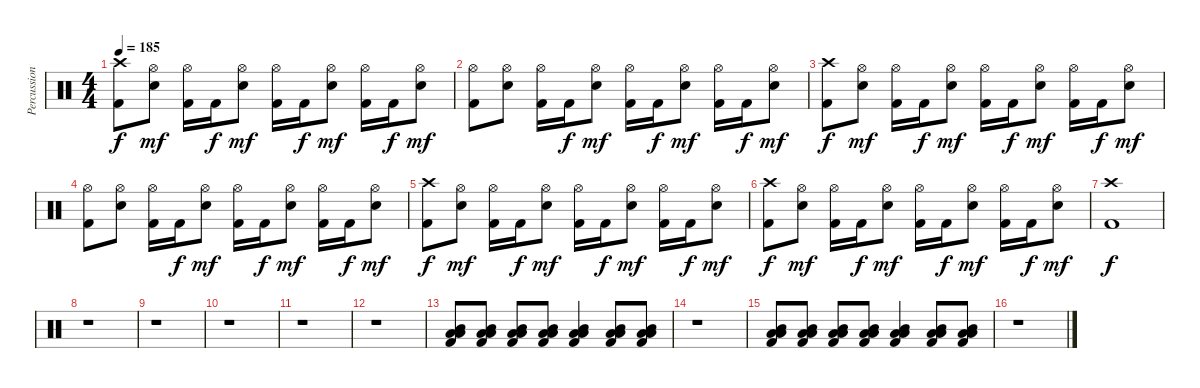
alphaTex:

\track ("Percussion" "Percussion") {instrument percussion}
\staff {score}
\articulation defaults
\ts (4 4)
\tempo 185
\clef neutral
\ks c
("Crash high (hit)" "Kick (hit) 2").8{dy f} ("Hi-Hat (open)" "Electric Snare (hit)").8{dy mf} ("Hi-Hat (open)" "Kick (hit) 2").16 "Kick (hit) 2".16{dy f} ("Hi-Hat (open)" "Electric Snare (hit)").8{dy mf} ("Hi-Hat (open)" "Kick (hit) 2").16 "Kick (hit) 2".16{dy f} ("Hi-Hat (open)" "Electric Snare (hit)").8{dy mf} ("Hi-Hat (open)" "Kick (hit) 2").16 "Kick (hit) 2".16{dy f} ("Hi-Hat (open)" "Electric Snare (hit)").8{dy mf} |
("Hi-Hat (open)" "Kick (hit) 2").8 ("Hi-Hat (open)" "Electric Snare (hit)").8 ("Hi-Hat (open)" "Kick (hit) 2").16 "Kick (hit) 2".16{dy f} ("Hi-Hat (open)" "Electric Snare (hit)").8{dy mf} ("Hi-Hat (open)" "Kick (hit) 2").16 "Kick (hit) 2".16{dy f} ("Hi-Hat (open)" "Electric Snare (hit)").8{dy mf} ("Hi-Hat (open)" "Kick (hit) 2").16 "Kick (hit) 2".16{dy f} ("Hi-Hat (open)" "Electric Snare (hit)").8{dy mf} |
("Crash high (hit)" "Kick (hit) 2").8{dy f} ("Hi-Hat (open)" "Electric Snare (hit)").8{dy mf} ("Hi-Hat (open)" "Kick (hit) 2").16 "Kick (hit) 2".16{dy f} ("Hi-Hat (open)" "Electric Snare (hit)").8{dy mf} ("Hi-Hat (open)" "Kick (hit) 2").16 "Kick (hit) 2".16{dy f} ("Hi-Hat (open)" "Electric Snare (hit)").8{dy mf} ("Hi-Hat (open)" "Kick (hit) 2").16 "Kick (hit) 2".16{dy f} ("Hi-Hat (open)" "Electric Snare (hit)").8{dy mf} |
("Hi-Hat (open)" "Kick (hit) 2").8 ("Hi-Hat (open)" "Electric Snare (hit)").8 ("Hi-Hat (open)" "Kick (hit) 2").16 "Kick (hit) 2".16{dy f} ("Hi-Hat (open)" "Electric Snare (hit)").8{dy mf} ("Hi-Hat (open)" "Kick (hit) 2").16 "Kick (hit) 2".16{dy f} ("Hi-Hat (open)" "Electric Snare (hit)").8{dy mf} ("Hi-Hat (open)" "Kick (hit) 2").16 "Kick (hit) 2".16{dy f} ("Hi-Hat (open)" "Electric Snare (hit)").8{dy mf} |
("Crash high (hit)" "Kick (hit) 2").8{dy f} ("Hi-Hat (open)" "Electric Snare (hit)").8{dy mf} ("Hi-Hat (open)" "Kick (hit) 2").16 "Kick (hit) 2".16{dy f} ("Hi-Hat (open)" "Electric Snare (hit)").8{dy mf} ("Hi-Hat (open)" "Kick (hit) 2").16 "Kick (hit) 2".16{dy f} ("Hi-Hat (open)" "Electric Snare (hit)").8{dy mf} ("Hi-Hat (open)" "Kick (hit) 2").16 "Kick (hit) 2".16{dy f} ("Hi-Hat (open)" "Electric Snare (hit)").8{dy mf} |
("Crash high (hit)" "Kick (hit) 2").8{dy f} ("Hi-Hat (open)" "Electric Snare (hit)").8{dy mf} ("Hi-Hat (open)" "Kick (hit) 2").16 "Kick (hit) 2".16{dy f} ("Hi-Hat (open)" "Electric Snare (hit)").8{dy mf} ("Hi-Hat (open)" "Kick (hit) 2").16 "Kick (hit) 2".16{dy f} ("Hi-Hat (open)" "Electric Snare (hit)").8{dy mf} ("Hi-Hat (open)" "Kick (hit) 2").16 "Kick (hit) 2".16{dy f} ("Hi-Hat (open)" "Electric Snare (hit)").8{dy mf} |
\section ("" "")
("Crash high (hit)" "Kick (hit) 2").1{dy f} |
r.1 |
r.1 |
r.1 |
r.1 |
r.1 |
("Low Floor Tom (hit)" "Mid Tom (hit)" "Low Tom (hit)" "Kick (hit) 2").8 ("Low Floor Tom (hit)" "Mid Tom (hit)" "Low Tom (hit)" "Kick (hit) 2").8 ("Low Floor Tom (hit)" "Mid Tom (hit)" "Low Tom (hit)" "Kick (hit) 2").8 ("Low Floor Tom (hit)" "Mid Tom (hit)" "Low Tom (hit)" "Kick (hit) 2").8 ("Low Floor Tom (hit)" "Mid Tom (hit)" "Low Tom (hit)" "Kick (hit) 2").4 ("Low Floor Tom (hit)" "Mid Tom (hit)" "Low Tom (hit)" "Kick (hit) 2").8 ("Low Floor Tom (hit)" "Mid Tom (hit)" "Low Tom (hit)" "Kick (hit) 2").8 |
r.1 |
("Low Floor Tom (hit)" "Mid Tom (hit)" "Low Tom (hit)" "Kick (hit) 2").8 ("Low Floor Tom (hit)" "Mid Tom (hit)" "Low Tom (hit)" "Kick (hit) 2").8 ("Low Floor Tom (hit)" "Mid Tom (hit)" "Low Tom (hit)" "Kick (hit) 2").8 ("Low Floor Tom (hit)" "Mid Tom (hit)" "Low Tom (hit)" "Kick (hit) 2").8 ("Low Floor Tom (hit)" "Mid Tom (hit)" "Low Tom (hit)" "Kick (hit) 2").4 ("Low Floor Tom (hit)" "Mid Tom (hit)" "Low Tom (hit)" "Kick (hit) 2").8 ("Low Floor Tom (hit)" "Mid Tom (hit)" "Low Tom (hit)" "Kick (hit) 2").8 |
r.1
